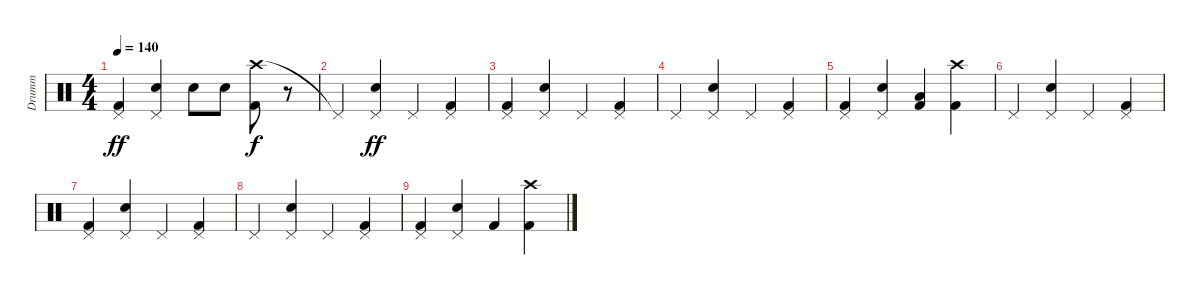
\track ("Drumm" "Drumm") {instrument percussion}
\staff {score}
\articulation defaults
\ts (4 4)
\tempo 140
\clef neutral
\ks c
("Pedal Hi-Hat (hit)" "Kick (hit) 2").4{dy ff} ("Pedal Hi-Hat (hit)" "Snare (hit) 2").4 "Snare (hit) 2".8 "Snare (hit) 2".8 ("Crash high (hit)" "Kick (hit) 2").8{dy f} r.8 |
"Pedal Hi-Hat (hit)"{t}.4 ("Pedal Hi-Hat (hit)" "Snare (hit) 2").4{dy ff} "Pedal Hi-Hat (hit)".4 ("Pedal Hi-Hat (hit)" "Kick (hit) 2").4 |
("Pedal Hi-Hat (hit)" "Kick (hit) 2").4 ("Pedal Hi-Hat (hit)" "Snare (hit) 2").4 "Pedal Hi-Hat (hit)".4 ("Pedal Hi-Hat (hit)" "Kick (hit) 2").4 |
"Pedal Hi-Hat (hit)".4 ("Pedal Hi-Hat (hit)" "Snare (hit) 2").4 "Pedal Hi-Hat (hit)".4 ("Pedal Hi-Hat (hit)" "Kick (hit) 2").4 |
("Pedal Hi-Hat (hit)" "Kick (hit) 2").4 ("Pedal Hi-Hat (hit)" "Snare (hit) 2").4 ("Low Tom (hit)" "Kick (hit) 2").4 ("Crash high (hit)" "Kick (hit) 2").4 |
"Pedal Hi-Hat (hit)".4 ("Pedal Hi-Hat (hit)" "Snare (hit) 2").4 "Pedal Hi-Hat (hit)".4 ("Pedal Hi-Hat (hit)" "Kick (hit) 2").4 |
("Pedal Hi-Hat (hit)" "Kick (hit) 2").4 ("Pedal Hi-Hat (hit)" "Snare (hit) 2").4 "Pedal Hi-Hat (hit)".4 ("Pedal Hi-Hat (hit)" "Kick (hit) 2").4 |
"Pedal Hi-Hat (hit)".4 ("Pedal Hi-Hat (hit)" "Snare (hit) 2").4 "Pedal Hi-Hat (hit)".4 ("Pedal Hi-Hat (hit)" "Kick (hit) 2").4 |
("Pedal Hi-Hat (hit)" "Kick (hit) 2").4 ("Pedal Hi-Hat (hit)" "Snare (hit) 2").4 "Kick (hit) 2".4 ("Crash high (hit)" "Kick (hit) 2").4
